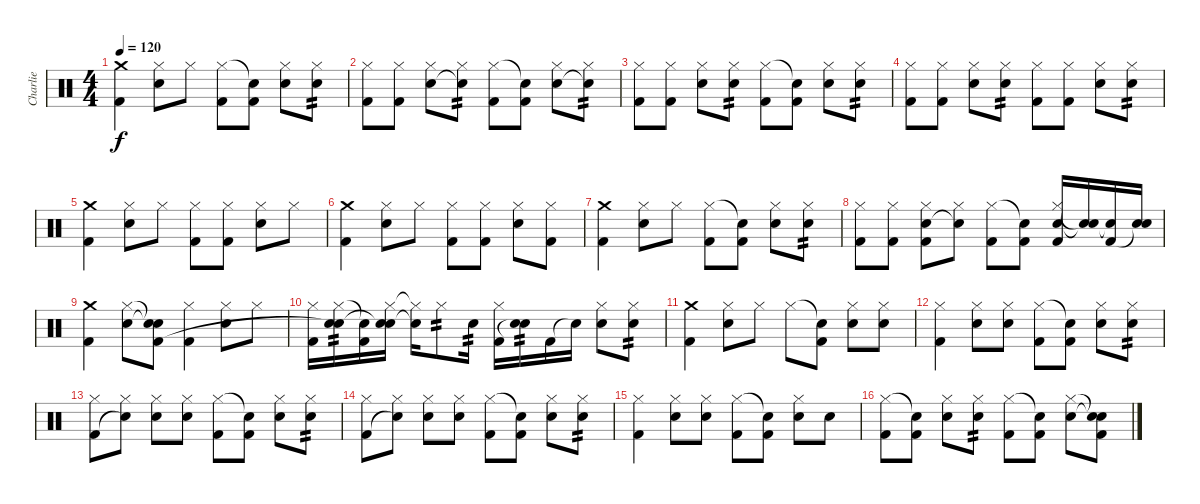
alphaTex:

\track ("Charlie" "Charlie") {instrument percussion}
\staff {score}
\articulation defaults
\ts (4 4)
\tempo 120
\clef neutral
\ks c
("Crash medium (hit)" "Kick (hit) 2").4{dy f} ("Hi-Hat (closed)" "Snare (hit) 2").8 "Hi-Hat (closed)".8 ("Hi-Hat (closed)" "Kick (hit) 2").8 ("Snare (hit)"{t} "Kick (hit) 2").8 ("Hi-Hat (closed)" "Snare (hit) 2").8 ("Hi-Hat (closed)" "Snare (hit) 2").8{tp 2} |
("Hi-Hat (closed)" "Kick (hit) 2").8 ("Hi-Hat (closed)" "Kick (hit) 2").8 ("Hi-Hat (closed)" "Snare (hit) 2").8 ("Hi-Hat (closed)" "Snare (hit)"{t}).8{tp 2} ("Hi-Hat (closed)" "Kick (hit) 2").8 ("Snare (hit)"{t} "Kick (hit) 2").8 ("Hi-Hat (closed)" "Snare (hit) 2").8 ("Hi-Hat (closed)" "Snare (hit)"{t}).8{tp 2} |
("Hi-Hat (closed)" "Kick (hit) 2").8 ("Hi-Hat (closed)" "Kick (hit) 2").8 ("Hi-Hat (closed)" "Snare (hit) 2").8 ("Hi-Hat (closed)" "Snare (hit) 2").8{tp 2} ("Hi-Hat (closed)" "Kick (hit) 2").8 ("Snare (hit)"{t} "Kick (hit) 2").8 ("Hi-Hat (closed)" "Snare (hit) 2").8 ("Hi-Hat (closed)" "Snare (hit) 2").8{tp 2} |
("Hi-Hat (closed)" "Kick (hit) 2").8 ("Hi-Hat (closed)" "Kick (hit) 2").8 ("Hi-Hat (closed)" "Snare (hit) 2").8 ("Hi-Hat (closed)" "Snare (hit) 2").8{tp 2} ("Hi-Hat (closed)" "Kick (hit) 2").8 ("Hi-Hat (closed)" "Kick (hit) 2").8 ("Hi-Hat (closed)" "Snare (hit) 2").8 ("Hi-Hat (closed)" "Snare (hit) 2").8{tp 2} |
("Crash medium (hit)" "Kick (hit) 2").4 ("Hi-Hat (closed)" "Snare (hit) 2").8 "Hi-Hat (closed)".8 ("Hi-Hat (closed)" "Kick (hit) 2").8 ("Hi-Hat (closed)" "Kick (hit) 2").8 ("Hi-Hat (closed)" "Snare (hit) 2").8 "Hi-Hat (closed)".8 |
("Crash medium (hit)" "Kick (hit) 2").4 ("Hi-Hat (closed)" "Snare (hit) 2").8 "Hi-Hat (closed)".8 ("Hi-Hat (closed)" "Kick (hit) 2").8 ("Hi-Hat (closed)" "Kick (hit) 2").8 ("Hi-Hat (closed)" "Snare (hit)"{x}).8 ("Hi-Hat (closed)" "Kick (hit) 2").8 |
("Crash medium (hit)" "Kick (hit) 2").4 ("Hi-Hat (closed)" "Snare (hit) 2").8 "Hi-Hat (closed)".8 ("Hi-Hat (closed)" "Kick (hit) 2").8 ("Snare (hit)"{t} "Kick (hit) 2").8 ("Hi-Hat (closed)" "Snare (hit) 2").8 ("Hi-Hat (closed)" "Snare (hit) 2").8{tp 2} |
("Hi-Hat (closed)" "Kick (hit) 2").8 ("Hi-Hat (closed)" "Kick (hit) 2").8 ("Hi-Hat (closed)" "Snare (hit) 2" "Kick (hit) 2").8 ("Hi-Hat (closed)" "Snare (hit)"{t}).8 ("Hi-Hat (closed)" "Kick (hit) 2").8 ("Snare (hit)"{t} "Kick (hit) 2").8 ("Hi-Hat (closed)" "Snare (hit) 2" "Kick (hit) 2").16 ("Snare (hit)"{t} "Snare (hit)"{t}).16 ("Snare (hit)"{t} "Kick (hit) 2").16 ("Snare (hit) 2" "Snare (hit)"{t}).16 |
("Crash medium (hit)" "Kick (hit) 2").4 ("Hi-Hat (closed)" "Snare (hit) 2").8 ("Snare (hit)"{t} "Snare (hit)"{t} "Kick (hit) 2").8 ("Hi-Hat (closed)" "Kick (hit) 2").4 ("Hi-Hat (closed)" "Snare (hit) 2").8 "Hi-Hat (closed)".8 |
("Hi-Hat (closed)" "Kick (hit) 2").16 ("Hi-Hat (closed)" "Snare (hit) 2" "Snare (hit)"{t}).16{tp 2} ("Snare (hit)"{t} "Kick (hit) 2").16 ("Hi-Hat (closed)" "Snare (hit) 2" "Snare (hit)"{t}).16 ("Hi-Hat (closed)"{t} "Snare (hit) 2"{t}).16 "Hi-Hat (closed)".8{tp 2} "Snare (hit) 2".16{tp 2} ("Hi-Hat (closed)" "Kick (hit) 2").16 ("Snare (hit) 2" "Snare (hit)"{t}).16{tp 2} "Kick (hit) 2".16 "Snare (hit)"{t}.16 ("Hi-Hat (closed)" "Snare (hit) 2").8 ("Hi-Hat (closed)" "Snare (hit) 2").8{tp 2} |
("Crash medium (hit)" "Kick (hit) 2").4 ("Hi-Hat (closed)" "Snare (hit) 2"{x}).8 "Hi-Hat (closed)".8 "Hi-Hat (closed)".8 ("Snare (hit)"{t} "Kick (hit) 2").8 ("Hi-Hat (closed)" "Snare (hit) 2").8 ("Hi-Hat (closed)" "Snare (hit) 2").8 |
("Hi-Hat (closed)" "Kick (hit) 2").4 ("Hi-Hat (closed)" "Snare (hit) 2").8 ("Hi-Hat (closed)" "Snare (hit) 2").8 ("Hi-Hat (closed)" "Kick (hit) 2").8 ("Snare (hit)"{t} "Kick (hit) 2").8 ("Hi-Hat (closed)" "Snare (hit) 2").8 ("Hi-Hat (closed)" "Snare (hit) 2").8{tp 2} |
("Hi-Hat (closed)" "Kick (hit) 2").8 ("Hi-Hat (closed)" "Snare (hit)"{t}).8 ("Hi-Hat (closed)" "Snare (hit) 2").8 ("Hi-Hat (closed)" "Snare (hit) 2").8 ("Hi-Hat (closed)" "Kick (hit) 2").8 ("Snare (hit)"{t} "Kick (hit) 2").8 ("Hi-Hat (closed)" "Snare (hit) 2").8 ("Hi-Hat (closed)" "Snare (hit) 2").8{tp 2} |
("Hi-Hat (closed)" "Kick (hit) 2").8 ("Hi-Hat (closed)" "Snare (hit)"{t}).8 ("Hi-Hat (closed)" "Snare (hit) 2").8 ("Hi-Hat (closed)" "Snare (hit) 2").8 ("Hi-Hat (closed)" "Kick (hit) 2").8 ("Snare (hit)"{t} "Kick (hit) 2").8 ("Hi-Hat (closed)" "Snare (hit) 2").8 ("Hi-Hat (closed)" "Snare (hit) 2").8{tp 2} |
("Hi-Hat (closed)" "Kick (hit) 2").4 ("Hi-Hat (closed)" "Snare (hit) 2").8 ("Hi-Hat (closed)" "Snare (hit) 2").8 ("Hi-Hat (closed)" "Kick (hit) 2").8 ("Snare (hit)"{t} "Kick (hit) 2").8 ("Hi-Hat (closed)" "Snare (hit) 2").8 "Snare (hit) 2".8 |
("Hi-Hat (closed)" "Kick (hit) 2").8 ("Snare (hit)"{t} "Kick (hit) 2").8 ("Hi-Hat (closed)" "Snare (hit) 2").8 ("Hi-Hat (closed)" "Snare (hit) 2").8{tp 2} ("Hi-Hat (closed)" "Kick (hit) 2").8 ("Snare (hit)"{t} "Kick (hit) 2").8 ("Hi-Hat (closed)" "Snare (hit) 2").8 ("Snare (hit)"{t} "Snare (hit)"{t} "Kick (hit) 2").8
